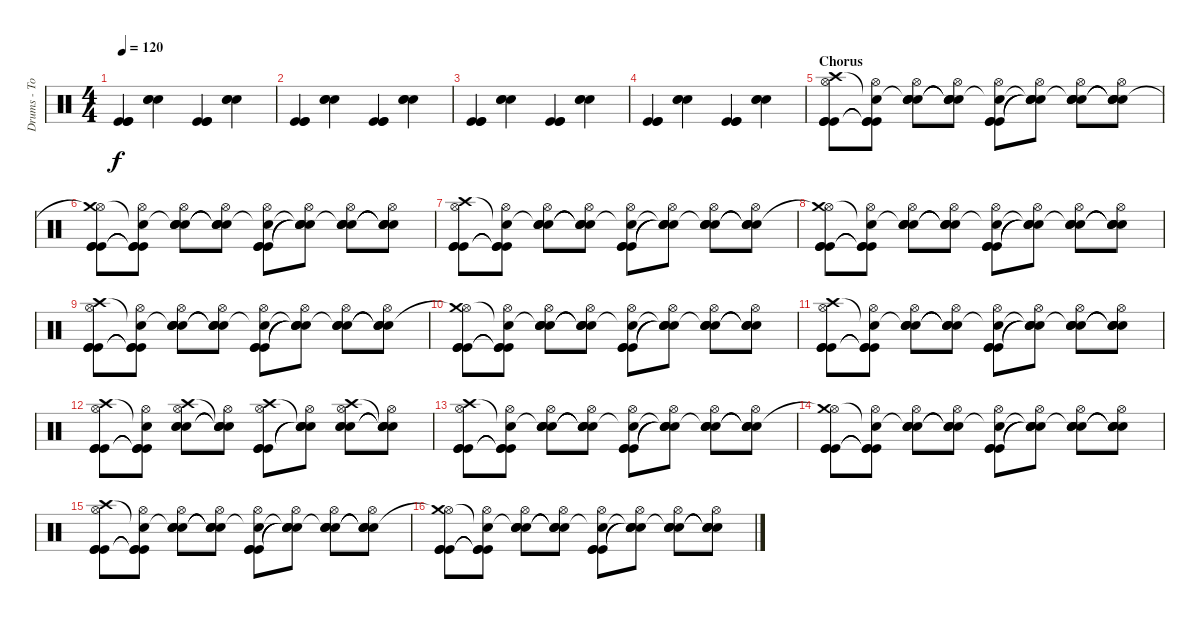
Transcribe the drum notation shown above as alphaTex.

\track ("Drums - Tom" "Drums - To") {instrument percussion}
\staff {score}
\articulation defaults
\ts (4 4)
\tempo 120
\clef neutral
\ks c
("Kick (hit)" "Kick (hit)" "Kick (hit)").4{dy f} ("Snare (hit) 2" "Snare (hit) 2" "Snare (hit) 2").4 ("Kick (hit)" "Kick (hit)" "Kick (hit)").4 ("Snare (hit) 2" "Snare (hit) 2" "Snare (hit) 2").4 |
("Kick (hit)" "Kick (hit)" "Kick (hit)").4 ("Snare (hit) 2" "Snare (hit) 2" "Snare (hit) 2").4 ("Kick (hit)" "Kick (hit)" "Kick (hit)").4 ("Snare (hit) 2" "Snare (hit) 2" "Snare (hit) 2").4 |
("Kick (hit)" "Kick (hit)" "Kick (hit)").4 ("Snare (hit) 2" "Snare (hit) 2" "Snare (hit) 2").4 ("Kick (hit)" "Kick (hit)" "Kick (hit)").4 ("Snare (hit) 2" "Snare (hit) 2" "Snare (hit) 2").4 |
("Kick (hit)" "Kick (hit)" "Kick (hit)").4 ("Snare (hit) 2" "Snare (hit) 2" "Snare (hit) 2").4 ("Kick (hit)" "Kick (hit)" "Kick (hit)").4 ("Snare (hit) 2" "Snare (hit) 2" "Snare (hit) 2").4 |
\section ("" "Chorus")
("Kick (hit)" "Kick (hit)" "Kick (hit)" "Hi-Hat (open)" "Crash high (hit)").8 ("Kick (hit)"{t} "Kick (hit)"{t} "Kick (hit)"{t} "Hi-Hat (open)" "Snare (hit)"{t}).8 ("Snare (hit) 2" "Snare (hit) 2" "Snare (hit) 2" "Hi-Hat (open)" "Snare (hit)"{t}).8 ("Snare (hit) 2"{t} "Snare (hit) 2"{t} "Snare (hit) 2"{t} "Hi-Hat (open)" "Snare (hit)"{t}).8 ("Kick (hit)" "Kick (hit)" "Kick (hit)" "Hi-Hat (open)" "Snare (hit)"{t}).8 ("Snare (hit)"{t} "Snare (hit)"{t} "Snare (hit)"{t} "Hi-Hat (open)" "Snare (hit)"{t}).8 ("Snare (hit) 2" "Snare (hit) 2" "Snare (hit) 2" "Hi-Hat (open)" "Snare (hit)"{t}).8 ("Snare (hit)"{t} "Snare (hit)"{t} "Snare (hit)"{t} "Hi-Hat (open)" "Snare (hit)"{t}).8 |
("Kick (hit)" "Kick (hit)" "Kick (hit)" "Hi-Hat (open)" "Crash medium (hit)"{t}).8 ("Kick (hit)"{t} "Kick (hit)"{t} "Kick (hit)"{t} "Hi-Hat (open)" "Snare (hit)"{t}).8 ("Snare (hit) 2" "Snare (hit) 2" "Snare (hit) 2" "Hi-Hat (open)" "Snare (hit)"{t}).8 ("Snare (hit) 2"{t} "Snare (hit) 2"{t} "Snare (hit) 2"{t} "Hi-Hat (open)" "Snare (hit)"{t}).8 ("Kick (hit)" "Kick (hit)" "Kick (hit)" "Hi-Hat (open)" "Snare (hit)"{t}).8 ("Snare (hit)"{t} "Snare (hit)"{t} "Snare (hit)"{t} "Hi-Hat (open)" "Snare (hit)"{t}).8 ("Snare (hit) 2" "Snare (hit) 2" "Snare (hit) 2" "Hi-Hat (open)" "Snare (hit)"{t}).8 ("Snare (hit)"{t} "Snare (hit)"{t} "Snare (hit)"{t} "Hi-Hat (open)" "Snare (hit)"{t}).8 |
("Kick (hit)" "Kick (hit)" "Kick (hit)" "Hi-Hat (open)" "Crash high (hit)").8 ("Kick (hit)"{t} "Kick (hit)"{t} "Kick (hit)"{t} "Hi-Hat (open)" "Snare (hit)"{t}).8 ("Snare (hit) 2" "Snare (hit) 2" "Snare (hit) 2" "Hi-Hat (open)" "Snare (hit)"{t}).8 ("Snare (hit) 2"{t} "Snare (hit) 2"{t} "Snare (hit) 2"{t} "Hi-Hat (open)" "Snare (hit)"{t}).8 ("Kick (hit)" "Kick (hit)" "Kick (hit)" "Hi-Hat (open)" "Snare (hit)"{t}).8 ("Snare (hit)"{t} "Snare (hit)"{t} "Snare (hit)"{t} "Hi-Hat (open)" "Snare (hit)"{t}).8 ("Snare (hit) 2" "Snare (hit) 2" "Snare (hit) 2" "Hi-Hat (open)" "Snare (hit)"{t}).8 ("Snare (hit)"{t} "Snare (hit)"{t} "Snare (hit)"{t} "Hi-Hat (open)" "Snare (hit)"{t}).8 |
("Kick (hit)" "Kick (hit)" "Kick (hit)" "Hi-Hat (open)" "Crash medium (hit)"{t}).8 ("Kick (hit)"{t} "Kick (hit)"{t} "Kick (hit)"{t} "Hi-Hat (open)" "Snare (hit)"{t}).8 ("Snare (hit) 2" "Snare (hit) 2" "Snare (hit) 2" "Hi-Hat (open)" "Snare (hit)"{t}).8 ("Snare (hit) 2"{t} "Snare (hit) 2"{t} "Snare (hit) 2"{t} "Hi-Hat (open)" "Snare (hit)"{t}).8 ("Kick (hit)" "Kick (hit)" "Kick (hit)" "Hi-Hat (open)" "Snare (hit)"{t}).8 ("Snare (hit)"{t} "Snare (hit)"{t} "Snare (hit)"{t} "Hi-Hat (open)" "Snare (hit)"{t}).8 ("Snare (hit) 2" "Snare (hit) 2" "Snare (hit) 2" "Hi-Hat (open)" "Snare (hit)"{t}).8 ("Snare (hit)"{t} "Snare (hit)"{t} "Snare (hit)"{t} "Hi-Hat (open)" "Snare (hit)"{t}).8 |
("Kick (hit)" "Kick (hit)" "Kick (hit)" "Hi-Hat (open)" "Crash high (hit)").8 ("Kick (hit)"{t} "Kick (hit)"{t} "Kick (hit)"{t} "Hi-Hat (open)" "Snare (hit)"{t}).8 ("Snare (hit) 2" "Snare (hit) 2" "Snare (hit) 2" "Hi-Hat (open)" "Snare (hit)"{t}).8 ("Snare (hit) 2"{t} "Snare (hit) 2"{t} "Snare (hit) 2"{t} "Hi-Hat (open)" "Snare (hit)"{t}).8 ("Kick (hit)" "Kick (hit)" "Kick (hit)" "Hi-Hat (open)" "Snare (hit)"{t}).8 ("Snare (hit)"{t} "Snare (hit)"{t} "Snare (hit)"{t} "Hi-Hat (open)" "Snare (hit)"{t}).8 ("Snare (hit) 2" "Snare (hit) 2" "Snare (hit) 2" "Hi-Hat (open)" "Snare (hit)"{t}).8 ("Snare (hit)"{t} "Snare (hit)"{t} "Snare (hit)"{t} "Hi-Hat (open)" "Snare (hit)"{t}).8 |
("Kick (hit)" "Kick (hit)" "Kick (hit)" "Hi-Hat (open)" "Crash medium (hit)"{t}).8 ("Kick (hit)"{t} "Kick (hit)"{t} "Kick (hit)"{t} "Hi-Hat (open)" "Snare (hit)"{t}).8 ("Snare (hit) 2" "Snare (hit) 2" "Snare (hit) 2" "Hi-Hat (open)" "Snare (hit)"{t}).8 ("Snare (hit) 2"{t} "Snare (hit) 2"{t} "Snare (hit) 2"{t} "Hi-Hat (open)" "Snare (hit)"{t}).8 ("Kick (hit)" "Kick (hit)" "Kick (hit)" "Hi-Hat (open)" "Snare (hit)"{t}).8 ("Snare (hit)"{t} "Snare (hit)"{t} "Snare (hit)"{t} "Hi-Hat (open)" "Snare (hit)"{t}).8 ("Snare (hit) 2" "Snare (hit) 2" "Snare (hit) 2" "Hi-Hat (open)" "Snare (hit)"{t}).8 ("Snare (hit)"{t} "Snare (hit)"{t} "Snare (hit)"{t} "Hi-Hat (open)" "Snare (hit)"{t}).8 |
("Kick (hit)" "Kick (hit)" "Kick (hit)" "Hi-Hat (open)" "Crash high (hit)").8 ("Kick (hit)"{t} "Kick (hit)"{t} "Kick (hit)"{t} "Hi-Hat (open)" "Snare (hit)"{t}).8 ("Snare (hit) 2" "Snare (hit) 2" "Snare (hit) 2" "Hi-Hat (open)" "Snare (hit)"{t}).8 ("Snare (hit) 2"{t} "Snare (hit) 2"{t} "Snare (hit) 2"{t} "Hi-Hat (open)" "Snare (hit)"{t}).8 ("Kick (hit)" "Kick (hit)" "Kick (hit)" "Hi-Hat (open)" "Snare (hit)"{t}).8 ("Snare (hit)"{t} "Snare (hit)"{t} "Snare (hit)"{t} "Hi-Hat (open)" "Snare (hit)"{t}).8 ("Snare (hit) 2" "Snare (hit) 2" "Snare (hit) 2" "Hi-Hat (open)" "Snare (hit)"{t}).8 ("Snare (hit)"{t} "Snare (hit)"{t} "Snare (hit)"{t} "Hi-Hat (open)" "Snare (hit)"{t}).8 |
("Kick (hit)" "Kick (hit)" "Kick (hit)" "Hi-Hat (open)" "Crash high (hit)").8 ("Kick (hit)"{t} "Kick (hit)"{t} "Kick (hit)"{t} "Hi-Hat (open)" "Snare (hit)"{t}).8 ("Snare (hit) 2" "Snare (hit) 2" "Snare (hit) 2" "Hi-Hat (open)" "Crash high (hit)").8 ("Snare (hit) 2"{t} "Snare (hit) 2"{t} "Snare (hit) 2"{t} "Hi-Hat (open)" "Snare (hit)"{t}).8 ("Kick (hit)" "Kick (hit)" "Kick (hit)" "Hi-Hat (open)" "Crash high (hit)").8 ("Snare (hit)"{t} "Snare (hit)"{t} "Snare (hit)"{t} "Hi-Hat (open)" "Snare (hit)"{t}).8 ("Snare (hit) 2" "Snare (hit) 2" "Snare (hit) 2" "Hi-Hat (open)" "Crash high (hit)").8 ("Snare (hit)"{t} "Snare (hit)"{t} "Snare (hit)"{t} "Hi-Hat (open)" "Snare (hit)"{t}).8 |
("Kick (hit)" "Kick (hit)" "Kick (hit)" "Hi-Hat (open)" "Crash high (hit)").8 ("Kick (hit)"{t} "Kick (hit)"{t} "Kick (hit)"{t} "Hi-Hat (open)" "Snare (hit)"{t}).8 ("Snare (hit) 2" "Snare (hit) 2" "Snare (hit) 2" "Hi-Hat (open)" "Snare (hit)"{t}).8 ("Snare (hit) 2"{t} "Snare (hit) 2"{t} "Snare (hit) 2"{t} "Hi-Hat (open)" "Snare (hit)"{t}).8 ("Kick (hit)" "Kick (hit)" "Kick (hit)" "Hi-Hat (open)" "Snare (hit)"{t}).8 ("Snare (hit)"{t} "Snare (hit)"{t} "Snare (hit)"{t} "Hi-Hat (open)" "Snare (hit)"{t}).8 ("Snare (hit) 2" "Snare (hit) 2" "Snare (hit) 2" "Hi-Hat (open)" "Snare (hit)"{t}).8 ("Snare (hit)"{t} "Snare (hit)"{t} "Snare (hit)"{t} "Hi-Hat (open)" "Snare (hit)"{t}).8 |
("Kick (hit)" "Kick (hit)" "Kick (hit)" "Hi-Hat (open)" "Crash medium (hit)"{t}).8 ("Kick (hit)"{t} "Kick (hit)"{t} "Kick (hit)"{t} "Hi-Hat (open)" "Snare (hit)"{t}).8 ("Snare (hit) 2" "Snare (hit) 2" "Snare (hit) 2" "Hi-Hat (open)" "Snare (hit)"{t}).8 ("Snare (hit) 2"{t} "Snare (hit) 2"{t} "Snare (hit) 2"{t} "Hi-Hat (open)" "Snare (hit)"{t}).8 ("Kick (hit)" "Kick (hit)" "Kick (hit)" "Hi-Hat (open)" "Snare (hit)"{t}).8 ("Snare (hit)"{t} "Snare (hit)"{t} "Snare (hit)"{t} "Hi-Hat (open)" "Snare (hit)"{t}).8 ("Snare (hit) 2" "Snare (hit) 2" "Snare (hit) 2" "Hi-Hat (open)" "Snare (hit)"{t}).8 ("Snare (hit)"{t} "Snare (hit)"{t} "Snare (hit)"{t} "Hi-Hat (open)" "Snare (hit)"{t}).8 |
("Kick (hit)" "Kick (hit)" "Kick (hit)" "Hi-Hat (open)" "Crash high (hit)").8 ("Kick (hit)"{t} "Kick (hit)"{t} "Kick (hit)"{t} "Hi-Hat (open)" "Snare (hit)"{t}).8 ("Snare (hit) 2" "Snare (hit) 2" "Snare (hit) 2" "Hi-Hat (open)" "Snare (hit)"{t}).8 ("Snare (hit) 2"{t} "Snare (hit) 2"{t} "Snare (hit) 2"{t} "Hi-Hat (open)" "Snare (hit)"{t}).8 ("Kick (hit)" "Kick (hit)" "Kick (hit)" "Hi-Hat (open)" "Snare (hit)"{t}).8 ("Snare (hit)"{t} "Snare (hit)"{t} "Snare (hit)"{t} "Hi-Hat (open)" "Snare (hit)"{t}).8 ("Snare (hit) 2" "Snare (hit) 2" "Snare (hit) 2" "Hi-Hat (open)" "Snare (hit)"{t}).8 ("Snare (hit)"{t} "Snare (hit)"{t} "Snare (hit)"{t} "Hi-Hat (open)" "Snare (hit)"{t}).8 |
("Kick (hit)" "Kick (hit)" "Kick (hit)" "Hi-Hat (open)" "Crash medium (hit)"{t}).8 ("Kick (hit)"{t} "Kick (hit)"{t} "Kick (hit)"{t} "Hi-Hat (open)" "Snare (hit)"{t}).8 ("Snare (hit) 2" "Snare (hit) 2" "Snare (hit) 2" "Hi-Hat (open)" "Snare (hit)"{t}).8 ("Snare (hit) 2"{t} "Snare (hit) 2"{t} "Snare (hit) 2"{t} "Hi-Hat (open)" "Snare (hit)"{t}).8 ("Kick (hit)" "Kick (hit)" "Kick (hit)" "Hi-Hat (open)" "Snare (hit)"{t}).8 ("Snare (hit)"{t} "Snare (hit)"{t} "Snare (hit)"{t} "Hi-Hat (open)" "Snare (hit)"{t}).8 ("Snare (hit) 2" "Snare (hit) 2" "Snare (hit) 2" "Hi-Hat (open)" "Snare (hit)"{t}).8 ("Snare (hit)"{t} "Snare (hit)"{t} "Snare (hit)"{t} "Hi-Hat (open)" "Snare (hit)"{t}).8
